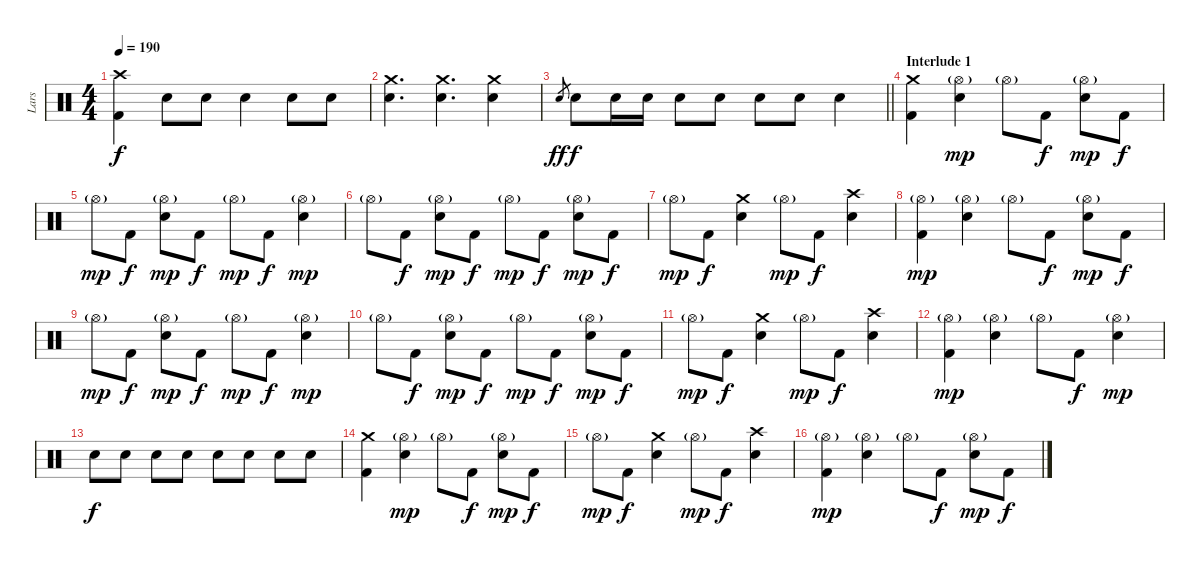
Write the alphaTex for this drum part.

\track ("Lars" "Lars") {instrument percussion}
\staff {score}
\articulation defaults
\ts (4 4)
\tempo 190
\clef neutral
\ks c
("Crash high (hit)" "Kick (hit) 2").4{dy f} "Electric Snare (hit)".8 "Electric Snare (hit)".8 "Electric Snare (hit)".4 "Electric Snare (hit)".8 "Electric Snare (hit)".8 |
("Crash medium (hit)" "Electric Snare (hit)").4{d} ("Crash medium (hit)" "Electric Snare (hit)").4{d} ("Crash medium (hit)" "Electric Snare (hit)").4 |
\barLineRight lightlight "Electric Snare (hit)".8{gr dy ff} "Electric Snare (hit)".8{dy f} "Electric Snare (hit)".16 "Electric Snare (hit)".16 "Electric Snare (hit)".8 "Electric Snare (hit)".8 "Electric Snare (hit)".8 "Electric Snare (hit)".8 "Electric Snare (hit)".4
|
\section ("" "Interlude 1")
("Crash medium (hit)" "Kick (hit) 2").4 ("Hi-Hat (open)"{g} "Electric Snare (hit)").4{dy mp} "Hi-Hat (open)"{g}.8 "Kick (hit) 2".8{dy f} ("Hi-Hat (open)"{g} "Electric Snare (hit)").8{dy mp} "Kick (hit) 2".8{dy f} |
"Hi-Hat (open)"{g}.8{dy mp} "Kick (hit) 2".8{dy f} ("Hi-Hat (open)"{g} "Electric Snare (hit)").8{dy mp} "Kick (hit) 2".8{dy f} "Hi-Hat (open)"{g}.8{dy mp} "Kick (hit) 2".8{dy f} ("Hi-Hat (open)"{g} "Electric Snare (hit)").4{dy mp} |
"Hi-Hat (open)"{g}.8 "Kick (hit) 2".8{dy f} ("Hi-Hat (open)"{g} "Electric Snare (hit)").8{dy mp} "Kick (hit) 2".8{dy f} "Hi-Hat (open)"{g}.8{dy mp} "Kick (hit) 2".8{dy f} ("Hi-Hat (open)"{g} "Electric Snare (hit)").8{dy mp} "Kick (hit) 2".8{dy f} |
"Hi-Hat (open)"{g}.8{dy mp} "Kick (hit) 2".8{dy f} ("Crash medium (hit)" "Electric Snare (hit)").4 "Hi-Hat (open)"{g}.8{dy mp} "Kick (hit) 2".8{dy f} ("Crash high (hit)" "Electric Snare (hit)").4 |
("Hi-Hat (open)"{g} "Kick (hit) 2").4{dy mp} ("Hi-Hat (open)"{g} "Electric Snare (hit)").4 "Hi-Hat (open)"{g}.8 "Kick (hit) 2".8{dy f} ("Hi-Hat (open)"{g} "Electric Snare (hit)").8{dy mp} "Kick (hit) 2".8{dy f} |
"Hi-Hat (open)"{g}.8{dy mp} "Kick (hit) 2".8{dy f} ("Hi-Hat (open)"{g} "Electric Snare (hit)").8{dy mp} "Kick (hit) 2".8{dy f} "Hi-Hat (open)"{g}.8{dy mp} "Kick (hit) 2".8{dy f} ("Hi-Hat (open)"{g} "Electric Snare (hit)").4{dy mp} |
"Hi-Hat (open)"{g}.8 "Kick (hit) 2".8{dy f} ("Hi-Hat (open)"{g} "Electric Snare (hit)").8{dy mp} "Kick (hit) 2".8{dy f} "Hi-Hat (open)"{g}.8{dy mp} "Kick (hit) 2".8{dy f} ("Hi-Hat (open)"{g} "Electric Snare (hit)").8{dy mp} "Kick (hit) 2".8{dy f} |
"Hi-Hat (open)"{g}.8{dy mp} "Kick (hit) 2".8{dy f} ("Crash medium (hit)" "Electric Snare (hit)").4 "Hi-Hat (open)"{g}.8{dy mp} "Kick (hit) 2".8{dy f} ("Crash high (hit)" "Electric Snare (hit)").4 |
("Hi-Hat (open)"{g} "Kick (hit) 2").4{dy mp} ("Hi-Hat (open)"{g} "Electric Snare (hit)").4 "Hi-Hat (open)"{g}.8 "Kick (hit) 2".8{dy f} ("Hi-Hat (open)"{g} "Electric Snare (hit)").4{dy mp} |
"Electric Snare (hit)".8{dy f} "Electric Snare (hit)".8 "Electric Snare (hit)".8 "Electric Snare (hit)".8 "Electric Snare (hit)".8 "Electric Snare (hit)".8 "Electric Snare (hit)".8 "Electric Snare (hit)".8 |
("Crash medium (hit)" "Kick (hit) 2").4 ("Hi-Hat (open)"{g} "Electric Snare (hit)").4{dy mp} "Hi-Hat (open)"{g}.8 "Kick (hit) 2".8{dy f} ("Hi-Hat (open)"{g} "Electric Snare (hit)").8{dy mp} "Kick (hit) 2".8{dy f} |
"Hi-Hat (open)"{g}.8{dy mp} "Kick (hit) 2".8{dy f} ("Crash medium (hit)" "Electric Snare (hit)").4 "Hi-Hat (open)"{g}.8{dy mp} "Kick (hit) 2".8{dy f} ("Crash high (hit)" "Electric Snare (hit)").4 |
("Hi-Hat (open)"{g} "Kick (hit) 2").4{dy mp} ("Hi-Hat (open)"{g} "Electric Snare (hit)").4 "Hi-Hat (open)"{g}.8 "Kick (hit) 2".8{dy f} ("Hi-Hat (open)"{g} "Electric Snare (hit)").8{dy mp} "Kick (hit) 2".8{dy f}
